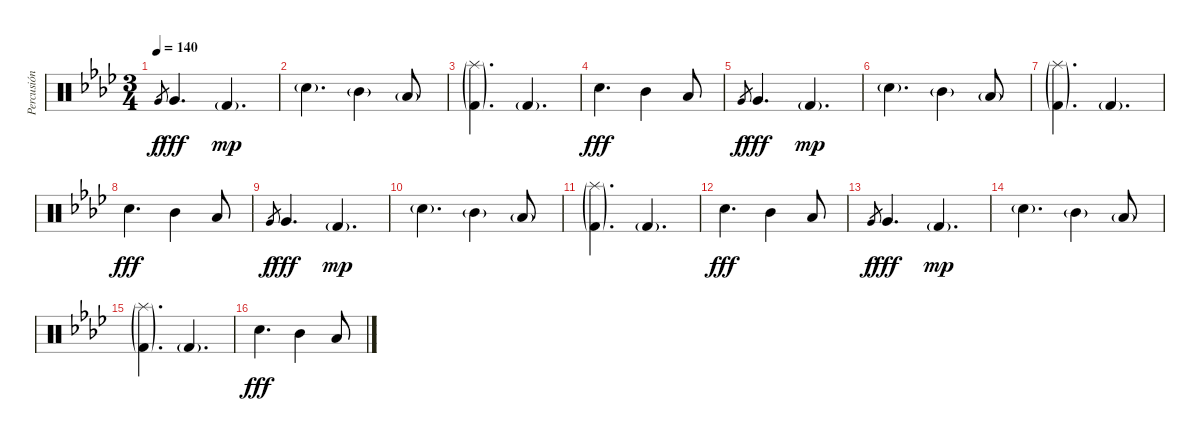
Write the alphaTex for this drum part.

\track ("Percusión" "Percusión") {instrument percussion}
\staff {score}
\articulation defaults
\ts (3 4)
\tempo 140
\clef neutral
\ks fminor "Very Low Tom (hit)".8{gr dy f} "Very Low Tom (hit)".4{d dy fff} "Kick (hit) 2"{g}.4{d dy mp}
|
"Electric Snare (hit)"{g}.4{d} "Mid Tom (hit)"{g}.4 "Low Tom (hit)"{g}.8 |
("Splash (hit)"{g} "Kick (hit) 2"{g}).4{d} "Kick (hit) 2"{g}.4{d} |
"Electric Snare (hit)".4{d dy fff} "Mid Tom (hit)".4 "Low Tom (hit)".8 |
"Very Low Tom (hit)".8{gr dy f} "Very Low Tom (hit)".4{d dy fff} "Kick (hit) 2"{g}.4{d dy mp} |
"Electric Snare (hit)"{g}.4{d} "Mid Tom (hit)"{g}.4 "Low Tom (hit)"{g}.8 |
("Splash (hit)"{g} "Kick (hit) 2"{g}).4{d} "Kick (hit) 2"{g}.4{d} |
"Electric Snare (hit)".4{d dy fff} "Mid Tom (hit)".4 "Low Tom (hit)".8 |
"Very Low Tom (hit)".8{gr dy f} "Very Low Tom (hit)".4{d dy fff} "Kick (hit) 2"{g}.4{d dy mp} |
"Electric Snare (hit)"{g}.4{d} "Mid Tom (hit)"{g}.4 "Low Tom (hit)"{g}.8 |
("Splash (hit)"{g} "Kick (hit) 2"{g}).4{d} "Kick (hit) 2"{g}.4{d} |
"Electric Snare (hit)".4{d dy fff} "Mid Tom (hit)".4 "Low Tom (hit)".8 |
"Very Low Tom (hit)".8{gr dy f} "Very Low Tom (hit)".4{d dy fff} "Kick (hit) 2"{g}.4{d dy mp} |
"Electric Snare (hit)"{g}.4{d} "Mid Tom (hit)"{g}.4 "Low Tom (hit)"{g}.8 |
("Splash (hit)"{g} "Kick (hit) 2"{g}).4{d} "Kick (hit) 2"{g}.4{d} |
"Electric Snare (hit)".4{d dy fff} "Mid Tom (hit)".4 "Low Tom (hit)".8
